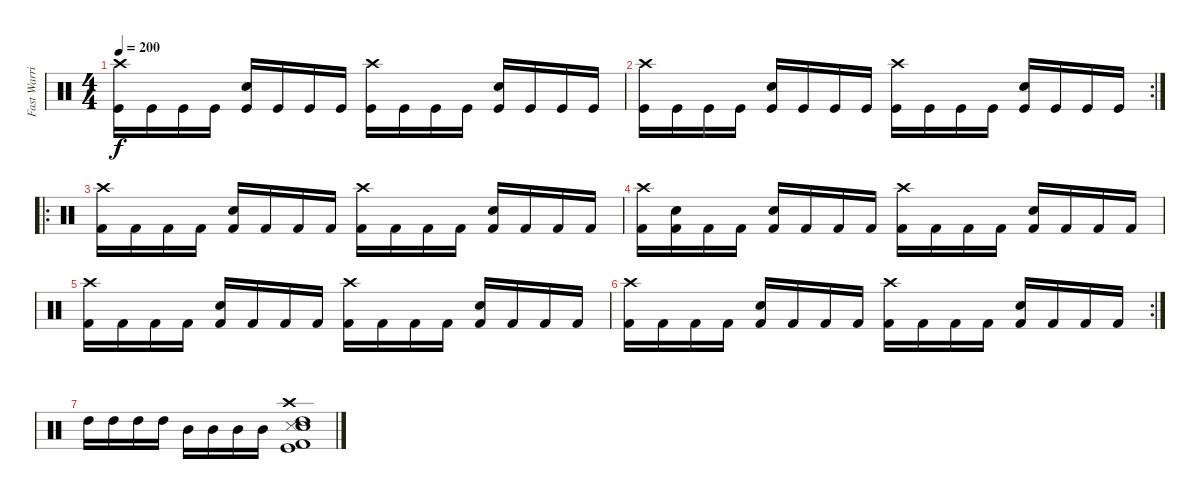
\track ("Fast Warrior" "Fast Warri") {instrument percussion}
\staff {score}
\articulation defaults
\ts (4 4)
\tempo 200
\clef neutral
\ks c
("Kick (hit)" "Crash high (hit)").16{dy f} "Kick (hit)".16 "Kick (hit)".16 "Kick (hit)".16 ("Kick (hit)" "Electric Snare (hit)").16 "Kick (hit)".16 "Kick (hit)".16 "Kick (hit)".16 ("Kick (hit)" "Crash high (hit)").16 "Kick (hit)".16 "Kick (hit)".16 "Kick (hit)".16 ("Kick (hit)" "Electric Snare (hit)").16 "Kick (hit)".16 "Kick (hit)".16 "Kick (hit)".16 |
\rc 2
("Kick (hit)" "Crash high (hit)").16 "Kick (hit)".16 "Kick (hit)".16 "Kick (hit)".16 ("Kick (hit)" "Electric Snare (hit)").16 "Kick (hit)".16 "Kick (hit)".16 "Kick (hit)".16 ("Kick (hit)" "Crash high (hit)").16 "Kick (hit)".16 "Kick (hit)".16 "Kick (hit)".16 ("Kick (hit)" "Electric Snare (hit)").16 "Kick (hit)".16 "Kick (hit)".16 "Kick (hit)".16 |
\ro
("Kick (hit) 2" "Crash high (hit)").16 "Kick (hit) 2".16 "Kick (hit) 2".16 "Kick (hit) 2".16 ("Kick (hit) 2" "Electric Snare (hit)").16 "Kick (hit) 2".16 "Kick (hit) 2".16 "Kick (hit) 2".16 ("Kick (hit) 2" "Crash high (hit)").16 "Kick (hit) 2".16 "Kick (hit) 2".16 "Kick (hit) 2".16 ("Kick (hit) 2" "Electric Snare (hit)").16 "Kick (hit) 2".16 "Kick (hit) 2".16 "Kick (hit) 2".16 |
("Kick (hit) 2" "Crash high (hit)").16 ("Kick (hit) 2" "Snare (hit)").16 "Kick (hit) 2".16 "Kick (hit) 2".16 ("Kick (hit) 2" "Electric Snare (hit)").16 "Kick (hit) 2".16 "Kick (hit) 2".16 "Kick (hit) 2".16 ("Kick (hit) 2" "Crash high (hit)").16 "Kick (hit) 2".16 "Kick (hit) 2".16 "Kick (hit) 2".16 ("Kick (hit) 2" "Electric Snare (hit)").16 "Kick (hit) 2".16 "Kick (hit) 2".16 "Kick (hit) 2".16 |
("Kick (hit) 2" "Crash high (hit)").16 "Kick (hit) 2".16 "Kick (hit) 2".16 "Kick (hit) 2".16 ("Kick (hit) 2" "Electric Snare (hit)").16 "Kick (hit) 2".16 "Kick (hit) 2".16 "Kick (hit) 2".16 ("Kick (hit) 2" "Crash high (hit)").16 "Kick (hit) 2".16 "Kick (hit) 2".16 "Kick (hit) 2".16 ("Kick (hit) 2" "Electric Snare (hit)").16 "Kick (hit) 2".16 "Kick (hit) 2".16 "Kick (hit) 2".16 |
\rc 2
("Kick (hit) 2" "Crash high (hit)").16 "Kick (hit) 2".16 "Kick (hit) 2".16 "Kick (hit) 2".16 ("Kick (hit) 2" "Electric Snare (hit)").16 "Kick (hit) 2".16 "Kick (hit) 2".16 "Kick (hit) 2".16 ("Kick (hit) 2" "Crash high (hit)").16 "Kick (hit) 2".16 "Kick (hit) 2".16 "Kick (hit) 2".16 ("Kick (hit) 2" "Electric Snare (hit)").16 "Kick (hit) 2".16 "Kick (hit) 2".16 "Kick (hit) 2".16 |
"High Tom (hit)".16 "High Tom (hit)".16 "High Tom (hit)".16 "High Tom (hit)".16 "Mid Tom (hit)".16 "Mid Tom (hit)".16 "Mid Tom (hit)".16 "Mid Tom (hit)".16 ("Snare (side stick) 3" "High Tom (hit)" "Crash high (hit)" "Kick (hit)" "Kick (hit) 2" "Electric Snare (hit)").1
